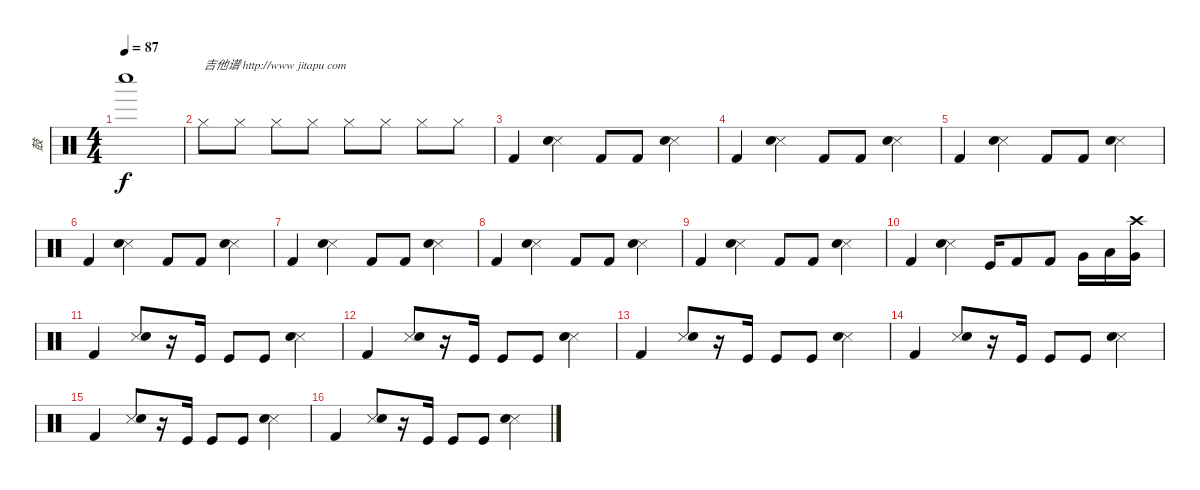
\track ("鼓" "鼓") {instrument percussion}
\staff {score}
\articulation defaults
\ts (4 4)
\tempo 87
\clef neutral
\ks c "Whistle low (hit)".1{dy f}
|
"Hi-Hat (closed)".8{txt "吉他谱 http://www jitapu com"} "Hi-Hat (closed)".8 "Hi-Hat (closed)".8 "Hi-Hat (closed)".8 "Hi-Hat (closed)".8 "Hi-Hat (closed)".8 "Hi-Hat (closed)".8 "Hi-Hat (closed)".8 |
"Kick (hit) 2".4 ("Snare (side stick) 3" "Electric Snare (hit)").4 "Kick (hit) 2".8 "Kick (hit) 2".8 ("Snare (side stick) 3" "Electric Snare (hit)").4 |
"Kick (hit) 2".4 ("Snare (side stick) 3" "Electric Snare (hit)").4 "Kick (hit) 2".8 "Kick (hit) 2".8 ("Snare (side stick) 3" "Electric Snare (hit)").4 |
"Kick (hit) 2".4 ("Snare (side stick) 3" "Electric Snare (hit)").4 "Kick (hit) 2".8 "Kick (hit) 2".8 ("Snare (side stick) 3" "Electric Snare (hit)").4 |
"Kick (hit) 2".4 ("Snare (side stick) 3" "Electric Snare (hit)").4 "Kick (hit) 2".8 "Kick (hit) 2".8 ("Snare (side stick) 3" "Electric Snare (hit)").4 |
"Kick (hit) 2".4 ("Snare (side stick) 3" "Electric Snare (hit)").4 "Kick (hit) 2".8 "Kick (hit) 2".8 ("Snare (side stick) 3" "Electric Snare (hit)").4 |
"Kick (hit) 2".4 ("Snare (side stick) 3" "Electric Snare (hit)").4 "Kick (hit) 2".8 "Kick (hit) 2".8 ("Snare (side stick) 3" "Electric Snare (hit)").4 |
"Kick (hit) 2".4 ("Snare (side stick) 3" "Electric Snare (hit)").4 "Kick (hit) 2".8 "Kick (hit) 2".8 ("Snare (side stick) 3" "Electric Snare (hit)").4 |
"Kick (hit) 2".4 ("Snare (side stick) 3" "Electric Snare (hit)").4 "Kick (hit)".16 "Kick (hit) 2".8 "Kick (hit) 2".8 "Very Low Tom (hit)".16 "Low Tom (hit)".16 ("Crash high (hit)" "Very Low Tom (hit)").16 |
"Kick (hit) 2".4 ("Snare (side stick) 3" "Electric Snare (hit)").8 r.16 "Kick (hit)".16 "Kick (hit)".8 "Kick (hit)".8 ("Snare (side stick) 3" "Electric Snare (hit)").4 |
"Kick (hit) 2".4 ("Snare (side stick) 3" "Electric Snare (hit)").8 r.16 "Kick (hit)".16 "Kick (hit)".8 "Kick (hit)".8 ("Snare (side stick) 3" "Electric Snare (hit)").4 |
"Kick (hit) 2".4 ("Snare (side stick) 3" "Electric Snare (hit)").8 r.16 "Kick (hit)".16 "Kick (hit)".8 "Kick (hit)".8 ("Snare (side stick) 3" "Electric Snare (hit)").4 |
"Kick (hit) 2".4 ("Snare (side stick) 3" "Electric Snare (hit)").8 r.16 "Kick (hit)".16 "Kick (hit)".8 "Kick (hit)".8 ("Snare (side stick) 3" "Electric Snare (hit)").4 |
"Kick (hit) 2".4 ("Snare (side stick) 3" "Electric Snare (hit)").8 r.16 "Kick (hit)".16 "Kick (hit)".8 "Kick (hit)".8 ("Snare (side stick) 3" "Electric Snare (hit)").4 |
"Kick (hit) 2".4 ("Snare (side stick) 3" "Electric Snare (hit)").8 r.16 "Kick (hit)".16 "Kick (hit)".8 "Kick (hit)".8 ("Snare (side stick) 3" "Electric Snare (hit)").4
